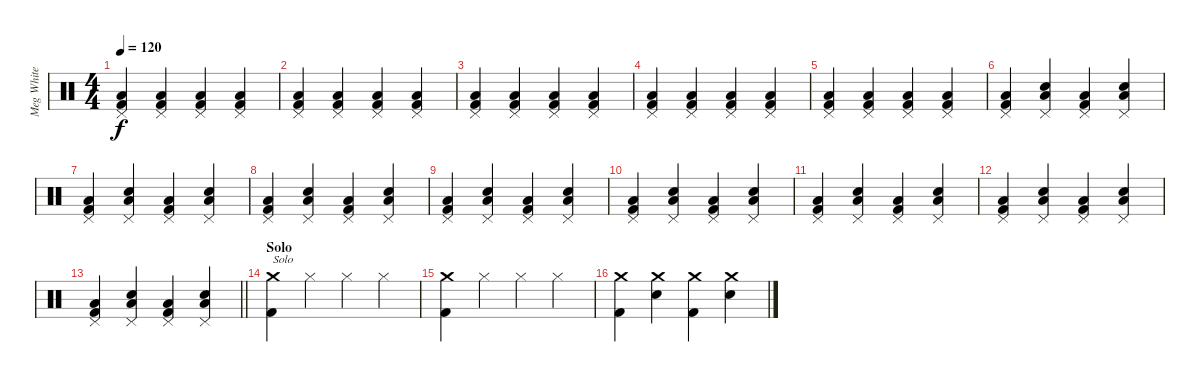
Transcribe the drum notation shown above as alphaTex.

\track ("Meg White" "Meg White") {instrument percussion}
\staff {score}
\articulation defaults
\ts (4 4)
\tempo 120
\clef neutral
\ks c
("Pedal Hi-Hat (hit)" "Low Floor Tom (hit)" "Kick (hit) 2").4{dy f} ("Pedal Hi-Hat (hit)" "Low Floor Tom (hit)" "Kick (hit) 2").4 ("Pedal Hi-Hat (hit)" "Low Floor Tom (hit)" "Kick (hit) 2").4 ("Pedal Hi-Hat (hit)" "Low Floor Tom (hit)" "Kick (hit) 2").4 |
("Pedal Hi-Hat (hit)" "Low Floor Tom (hit)" "Kick (hit) 2").4 ("Pedal Hi-Hat (hit)" "Low Floor Tom (hit)" "Kick (hit) 2").4 ("Pedal Hi-Hat (hit)" "Low Floor Tom (hit)" "Kick (hit) 2").4 ("Pedal Hi-Hat (hit)" "Low Floor Tom (hit)" "Kick (hit) 2").4 |
("Pedal Hi-Hat (hit)" "Low Floor Tom (hit)" "Kick (hit) 2").4 ("Pedal Hi-Hat (hit)" "Low Floor Tom (hit)" "Kick (hit) 2").4 ("Pedal Hi-Hat (hit)" "Low Floor Tom (hit)" "Kick (hit) 2").4 ("Pedal Hi-Hat (hit)" "Low Floor Tom (hit)" "Kick (hit) 2").4 |
("Pedal Hi-Hat (hit)" "Low Floor Tom (hit)" "Kick (hit) 2").4 ("Pedal Hi-Hat (hit)" "Low Floor Tom (hit)" "Kick (hit) 2").4 ("Pedal Hi-Hat (hit)" "Low Floor Tom (hit)" "Kick (hit) 2").4 ("Pedal Hi-Hat (hit)" "Low Floor Tom (hit)" "Kick (hit) 2").4 |
("Pedal Hi-Hat (hit)" "Low Floor Tom (hit)" "Kick (hit) 2").4 ("Pedal Hi-Hat (hit)" "Low Floor Tom (hit)" "Kick (hit) 2").4 ("Pedal Hi-Hat (hit)" "Low Floor Tom (hit)" "Kick (hit) 2").4 ("Pedal Hi-Hat (hit)" "Low Floor Tom (hit)" "Kick (hit) 2").4 |
("Pedal Hi-Hat (hit)" "Low Floor Tom (hit)" "Kick (hit) 2").4 ("Pedal Hi-Hat (hit)" "Low Floor Tom (hit)" "Snare (hit) 2").4 ("Pedal Hi-Hat (hit)" "Low Floor Tom (hit)" "Kick (hit) 2").4 ("Pedal Hi-Hat (hit)" "Low Floor Tom (hit)" "Snare (hit) 2").4 |
("Pedal Hi-Hat (hit)" "Low Floor Tom (hit)" "Kick (hit) 2").4 ("Pedal Hi-Hat (hit)" "Low Floor Tom (hit)" "Snare (hit) 2").4 ("Pedal Hi-Hat (hit)" "Low Floor Tom (hit)" "Kick (hit) 2").4 ("Pedal Hi-Hat (hit)" "Low Floor Tom (hit)" "Snare (hit) 2").4 |
("Pedal Hi-Hat (hit)" "Low Floor Tom (hit)" "Kick (hit) 2").4 ("Pedal Hi-Hat (hit)" "Low Floor Tom (hit)" "Snare (hit) 2").4 ("Pedal Hi-Hat (hit)" "Low Floor Tom (hit)" "Kick (hit) 2").4 ("Pedal Hi-Hat (hit)" "Low Floor Tom (hit)" "Snare (hit) 2").4 |
("Pedal Hi-Hat (hit)" "Low Floor Tom (hit)" "Kick (hit) 2").4 ("Pedal Hi-Hat (hit)" "Low Floor Tom (hit)" "Snare (hit) 2").4 ("Pedal Hi-Hat (hit)" "Low Floor Tom (hit)" "Kick (hit) 2").4 ("Pedal Hi-Hat (hit)" "Low Floor Tom (hit)" "Snare (hit) 2").4 |
("Pedal Hi-Hat (hit)" "Low Floor Tom (hit)" "Kick (hit) 2").4 ("Pedal Hi-Hat (hit)" "Low Floor Tom (hit)" "Snare (hit) 2").4 ("Pedal Hi-Hat (hit)" "Low Floor Tom (hit)" "Kick (hit) 2").4 ("Pedal Hi-Hat (hit)" "Low Floor Tom (hit)" "Snare (hit) 2").4 |
("Pedal Hi-Hat (hit)" "Low Floor Tom (hit)" "Kick (hit) 2").4 ("Pedal Hi-Hat (hit)" "Low Floor Tom (hit)" "Snare (hit) 2").4 ("Pedal Hi-Hat (hit)" "Low Floor Tom (hit)" "Kick (hit) 2").4 ("Pedal Hi-Hat (hit)" "Low Floor Tom (hit)" "Snare (hit) 2").4 |
("Pedal Hi-Hat (hit)" "Low Floor Tom (hit)" "Kick (hit) 2").4 ("Pedal Hi-Hat (hit)" "Low Floor Tom (hit)" "Snare (hit) 2").4 ("Pedal Hi-Hat (hit)" "Low Floor Tom (hit)" "Kick (hit) 2").4 ("Pedal Hi-Hat (hit)" "Low Floor Tom (hit)" "Snare (hit) 2").4 |
\barLineRight lightlight
("Pedal Hi-Hat (hit)" "Low Floor Tom (hit)" "Kick (hit) 2").4 ("Pedal Hi-Hat (hit)" "Low Floor Tom (hit)" "Snare (hit) 2").4 ("Pedal Hi-Hat (hit)" "Low Floor Tom (hit)" "Kick (hit) 2").4 ("Pedal Hi-Hat (hit)" "Low Floor Tom (hit)" "Snare (hit) 2").4 |
\section ("" "Solo")
("Crash medium (hit)" "Kick (hit) 2").4{txt "Solo"} "Hi-Hat (closed)".4 "Hi-Hat (closed)".4 "Hi-Hat (closed)".4 |
("Crash medium (hit)" "Kick (hit) 2").4 "Hi-Hat (closed)".4 "Hi-Hat (closed)".4 "Hi-Hat (closed)".4 |
("Crash medium (hit)" "Kick (hit) 2").4 ("Crash medium (hit)" "Snare (hit) 2").4 ("Crash medium (hit)" "Kick (hit) 2").4 ("Crash medium (hit)" "Snare (hit) 2").4
